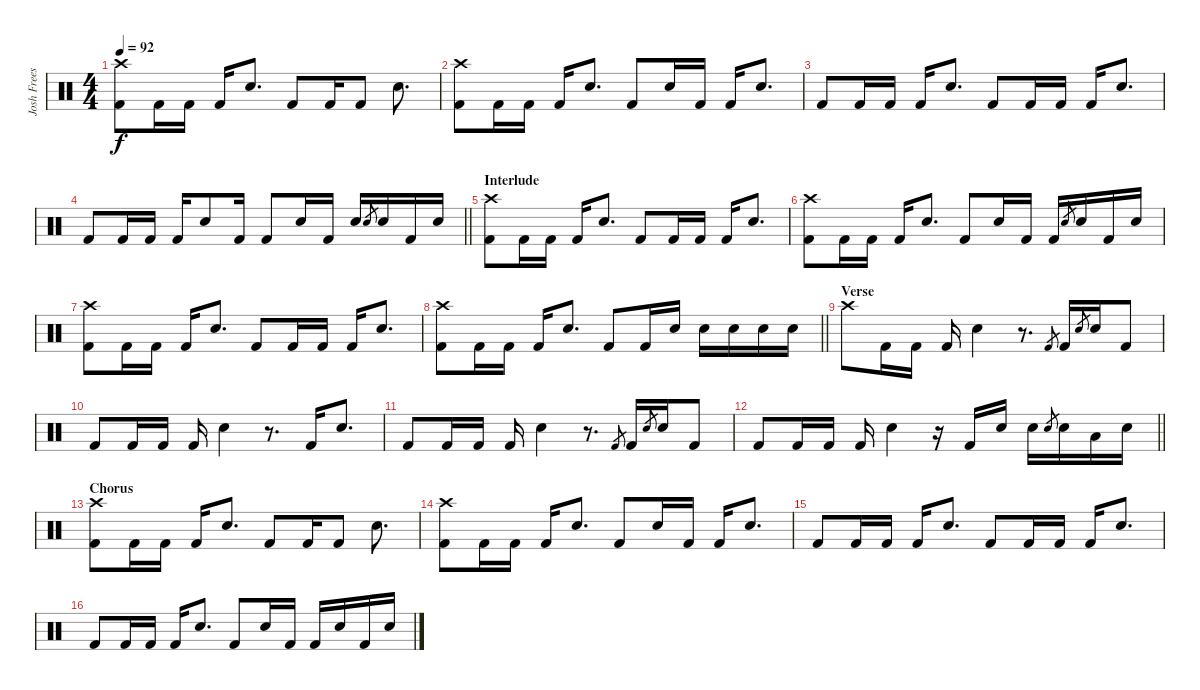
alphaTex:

\track ("Josh Freese (Studio Drummer)" "Josh Frees") {instrument percussion}
\staff {score}
\articulation defaults
\ts (4 4)
\tempo 92
\clef neutral
\ks c
("Crash high (hit)" "Kick (hit) 2").8{dy f} "Kick (hit) 2".16 "Kick (hit) 2".16 "Kick (hit) 2".16 "Electric Snare (hit)".8{d} "Kick (hit) 2".8 "Kick (hit) 2".16 "Kick (hit) 2".8 "Electric Snare (hit)".8{d} |
("Crash high (hit)" "Kick (hit) 2").8 "Kick (hit) 2".16 "Kick (hit) 2".16 "Kick (hit) 2".16 "Electric Snare (hit)".8{d} "Kick (hit) 2".8 "Electric Snare (hit)".16 "Kick (hit) 2".16 "Kick (hit) 2".16 "Electric Snare (hit)".8{d} |
"Kick (hit) 2".8 "Kick (hit) 2".16 "Kick (hit) 2".16 "Kick (hit) 2".16 "Electric Snare (hit)".8{d} "Kick (hit) 2".8 "Kick (hit) 2".16 "Kick (hit) 2".16 "Kick (hit) 2".16 "Electric Snare (hit)".8{d} |
\barLineRight lightlight "Kick (hit) 2".8 "Kick (hit) 2".16 "Kick (hit) 2".16 "Kick (hit) 2".16 "Electric Snare (hit)".8 "Kick (hit) 2".16 "Kick (hit) 2".8 "Electric Snare (hit)".16 "Kick (hit) 2".16 "Electric Snare (hit)".16 "Electric Snare (hit)".8{gr} "Electric Snare (hit)".16 "Kick (hit) 2".16 "Electric Snare (hit)".16
|
\section ("" "Interlude")
("Crash high (hit)" "Kick (hit) 2").8 "Kick (hit) 2".16 "Kick (hit) 2".16 "Kick (hit) 2".16 "Electric Snare (hit)".8{d} "Kick (hit) 2".8 "Kick (hit) 2".16 "Kick (hit) 2".16 "Kick (hit) 2".16 "Electric Snare (hit)".8{d} |
("Crash high (hit)" "Kick (hit) 2").8 "Kick (hit) 2".16 "Kick (hit) 2".16 "Kick (hit) 2".16 "Electric Snare (hit)".8{d} "Kick (hit) 2".8 "Electric Snare (hit)".16 "Kick (hit) 2".16 "Kick (hit) 2".16 "Electric Snare (hit)".8{gr} "Electric Snare (hit)".16 "Kick (hit) 2".16 "Electric Snare (hit)".16 |
("Crash high (hit)" "Kick (hit) 2").8 "Kick (hit) 2".16 "Kick (hit) 2".16 "Kick (hit) 2".16 "Electric Snare (hit)".8{d} "Kick (hit) 2".8 "Kick (hit) 2".16 "Kick (hit) 2".16 "Kick (hit) 2".16 "Electric Snare (hit)".8{d} |
\barLineRight lightlight
("Crash high (hit)" "Kick (hit) 2").8 "Kick (hit) 2".16 "Kick (hit) 2".16 "Kick (hit) 2".16 "Electric Snare (hit)".8{d} "Kick (hit) 2".8 "Kick (hit) 2".16 "Electric Snare (hit)".16 "Electric Snare (hit)".16 "Electric Snare (hit)".16 "Electric Snare (hit)".16 "Electric Snare (hit)".16 |
\section ("" "Verse")
"Crash high (hit)".8{volume 13} "Kick (hit) 2".16 "Kick (hit) 2".16 "Kick (hit) 2".16 "Electric Snare (hit)".4 r.8{d} "Kick (hit) 2".8{gr} "Kick (hit) 2".16 "Electric Snare (hit)".8{gr} "Electric Snare (hit)".16 "Kick (hit) 2".8 |
"Kick (hit) 2".8 "Kick (hit) 2".16 "Kick (hit) 2".16 "Kick (hit) 2".16 "Electric Snare (hit)".4 r.8{d} "Kick (hit) 2".16 "Electric Snare (hit)".8{d} |
"Kick (hit) 2".8 "Kick (hit) 2".16 "Kick (hit) 2".16 "Kick (hit) 2".16 "Electric Snare (hit)".4 r.8{d} "Kick (hit) 2".8{gr} "Kick (hit) 2".16 "Electric Snare (hit)".8{gr} "Electric Snare (hit)".16 "Kick (hit) 2".8 |
\barLineRight lightlight "Kick (hit) 2".8 "Kick (hit) 2".16 "Kick (hit) 2".16 "Kick (hit) 2".16 "Electric Snare (hit)".4
r.16 "Kick (hit) 2".16 "Electric Snare (hit)".16 "Electric Snare (hit)".16 "Electric Snare (hit)".8{gr} "Electric Snare (hit)".16 "Low Tom (hit)".16 "Electric Snare (hit)".16 |
\section ("" "Chorus")
("Crash high (hit)" "Kick (hit) 2").8{volume 12} "Kick (hit) 2".16 "Kick (hit) 2".16 "Kick (hit) 2".16 "Electric Snare (hit)".8{d} "Kick (hit) 2".8 "Kick (hit) 2".16 "Kick (hit) 2".8 "Electric Snare (hit)".8{d} |
("Crash high (hit)" "Kick (hit) 2").8 "Kick (hit) 2".16 "Kick (hit) 2".16 "Kick (hit) 2".16 "Electric Snare (hit)".8{d} "Kick (hit) 2".8 "Electric Snare (hit)".16 "Kick (hit) 2".16 "Kick (hit) 2".16 "Electric Snare (hit)".8{d} |
"Kick (hit) 2".8 "Kick (hit) 2".16 "Kick (hit) 2".16 "Kick (hit) 2".16 "Electric Snare (hit)".8{d} "Kick (hit) 2".8 "Kick (hit) 2".16 "Kick (hit) 2".16 "Kick (hit) 2".16 "Electric Snare (hit)".8{d} |
"Kick (hit) 2".8 "Kick (hit) 2".16 "Kick (hit) 2".16 "Kick (hit) 2".16 "Electric Snare (hit)".8{d} "Kick (hit) 2".8 "Electric Snare (hit)".16 "Kick (hit) 2".16 "Kick (hit) 2".16 "Electric Snare (hit)".16 "Kick (hit) 2".16 "Electric Snare (hit)".16
